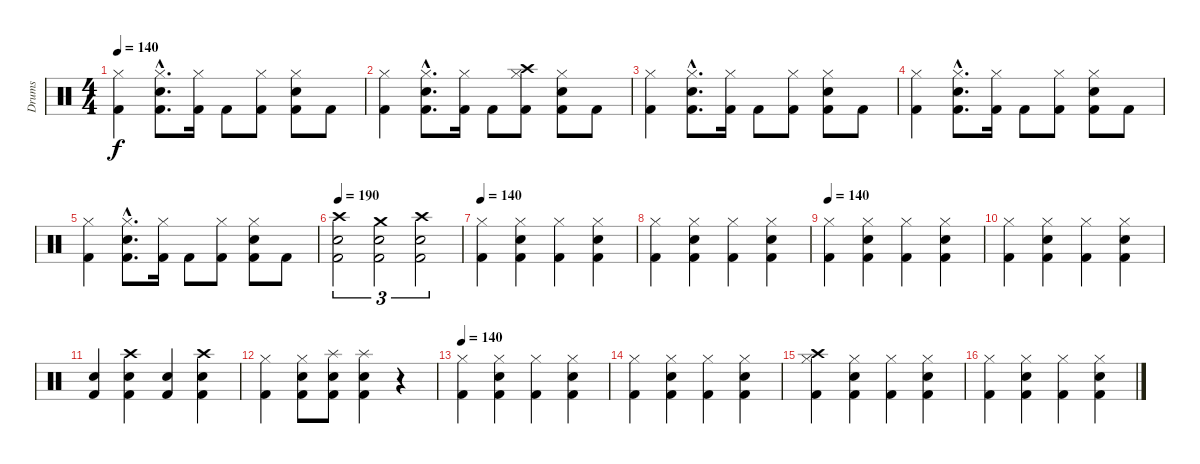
\track ("Drums" "Drums") {instrument percussion}
\staff {score}
\articulation defaults
\ts (4 4)
\tempo 140
\clef neutral
\ks c
("Hi-Hat (closed)" "Kick (hit) 2").4{dy f} ("Hi-Hat (closed)"{hac} "Electric Snare (hit)"{hac} "Kick (hit) 2"{hac}).8{d} ("Hi-Hat (closed)" "Kick (hit) 2").16 "Kick (hit) 2".8 ("Hi-Hat (closed)" "Kick (hit) 2").8 ("Hi-Hat (closed)" "Electric Snare (hit)" "Kick (hit) 2").8 "Kick (hit) 2".8 |
("Hi-Hat (closed)" "Kick (hit) 2").4 ("Hi-Hat (closed)"{hac} "Electric Snare (hit)"{hac} "Kick (hit) 2"{hac}).8{d} ("Hi-Hat (closed)" "Kick (hit) 2").16 "Kick (hit) 2".8 ("Hi-Hat (closed)" "Crash high (hit)" "Kick (hit) 2").8 ("Hi-Hat (closed)" "Electric Snare (hit)" "Kick (hit) 2").8 "Kick (hit) 2".8 |
("Hi-Hat (closed)" "Kick (hit) 2").4 ("Hi-Hat (closed)"{hac} "Electric Snare (hit)"{hac} "Kick (hit) 2"{hac}).8{d} ("Hi-Hat (closed)" "Kick (hit) 2").16 "Kick (hit) 2".8 ("Hi-Hat (closed)" "Kick (hit) 2").8 ("Hi-Hat (closed)" "Electric Snare (hit)" "Kick (hit) 2").8 "Kick (hit) 2".8 |
("Hi-Hat (closed)" "Kick (hit) 2").4 ("Hi-Hat (closed)"{hac} "Electric Snare (hit)"{hac} "Kick (hit) 2"{hac}).8{d} ("Hi-Hat (closed)" "Kick (hit) 2").16 "Kick (hit) 2".8 ("Hi-Hat (closed)" "Kick (hit) 2").8 ("Hi-Hat (closed)" "Electric Snare (hit)" "Kick (hit) 2").8 "Kick (hit) 2".8 |
("Hi-Hat (closed)" "Kick (hit) 2").4 ("Hi-Hat (closed)"{hac} "Electric Snare (hit)"{hac} "Kick (hit) 2"{hac}).8{d} ("Hi-Hat (closed)" "Kick (hit) 2").16 "Kick (hit) 2".8 ("Hi-Hat (closed)" "Kick (hit) 2").8 ("Hi-Hat (closed)" "Electric Snare (hit)" "Kick (hit) 2").8 "Kick (hit) 2".8 |
\tempo 190
("Crash high (hit)" "Electric Snare (hit)" "Kick (hit) 2").2{tu (3 2)} ("Crash medium (hit)" "Electric Snare (hit)" "Kick (hit) 2").2{tu (3 2)} ("Crash high (hit)" "Electric Snare (hit)" "Kick (hit) 2").2{tu (3 2)} |
\tempo 140
("Hi-Hat (closed)" "Kick (hit) 2").4 ("Hi-Hat (closed)" "Electric Snare (hit)" "Kick (hit) 2").4 ("Hi-Hat (closed)" "Kick (hit) 2").4 ("Hi-Hat (closed)" "Electric Snare (hit)" "Kick (hit) 2").4 |
("Hi-Hat (closed)" "Kick (hit) 2").4 ("Hi-Hat (closed)" "Electric Snare (hit)" "Kick (hit) 2").4 ("Hi-Hat (closed)" "Kick (hit) 2").4 ("Hi-Hat (closed)" "Electric Snare (hit)" "Kick (hit) 2").4 |
\tempo 140
("Hi-Hat (closed)" "Kick (hit) 2").4 ("Hi-Hat (closed)" "Electric Snare (hit)" "Kick (hit) 2").4 ("Hi-Hat (closed)" "Kick (hit) 2").4 ("Hi-Hat (closed)" "Electric Snare (hit)" "Kick (hit) 2").4 |
("Hi-Hat (closed)" "Kick (hit) 2").4 ("Hi-Hat (closed)" "Electric Snare (hit)" "Kick (hit) 2").4 ("Hi-Hat (closed)" "Kick (hit) 2").4 ("Hi-Hat (closed)" "Electric Snare (hit)" "Kick (hit) 2").4 |
("Electric Snare (hit)" "Kick (hit) 2").4 ("Crash high (hit)" "Electric Snare (hit)" "Kick (hit) 2").4 ("Electric Snare (hit)" "Kick (hit) 2").4 ("Crash high (hit)" "Electric Snare (hit)" "Kick (hit) 2").4 |
("Hi-Hat (closed)" "Kick (hit) 2").4 ("Hi-Hat (closed)" "Electric Snare (hit)" "Kick (hit) 2").8 ("Splash (hit)" "Electric Snare (hit)" "Kick (hit) 2").8 ("Splash (hit)" "Electric Snare (hit)" "Kick (hit) 2").4 r.4 |
\tempo 140
("Hi-Hat (closed)" "Kick (hit) 2").4 ("Hi-Hat (closed)" "Electric Snare (hit)" "Kick (hit) 2").4 ("Hi-Hat (closed)" "Kick (hit) 2").4 ("Hi-Hat (closed)" "Electric Snare (hit)" "Kick (hit) 2").4 |
("Hi-Hat (closed)" "Kick (hit) 2").4 ("Hi-Hat (closed)" "Electric Snare (hit)" "Kick (hit) 2").4 ("Hi-Hat (closed)" "Kick (hit) 2").4 ("Hi-Hat (closed)" "Electric Snare (hit)" "Kick (hit) 2").4 |
("Hi-Hat (closed)" "Crash high (hit)" "Kick (hit) 2").4 ("Hi-Hat (closed)" "Electric Snare (hit)" "Kick (hit) 2").4 ("Hi-Hat (closed)" "Kick (hit) 2").4 ("Hi-Hat (closed)" "Electric Snare (hit)" "Kick (hit) 2").4 |
("Hi-Hat (closed)" "Kick (hit) 2").4 ("Hi-Hat (closed)" "Electric Snare (hit)" "Kick (hit) 2").4 ("Hi-Hat (closed)" "Kick (hit) 2").4 ("Hi-Hat (closed)" "Electric Snare (hit)" "Kick (hit) 2").4
